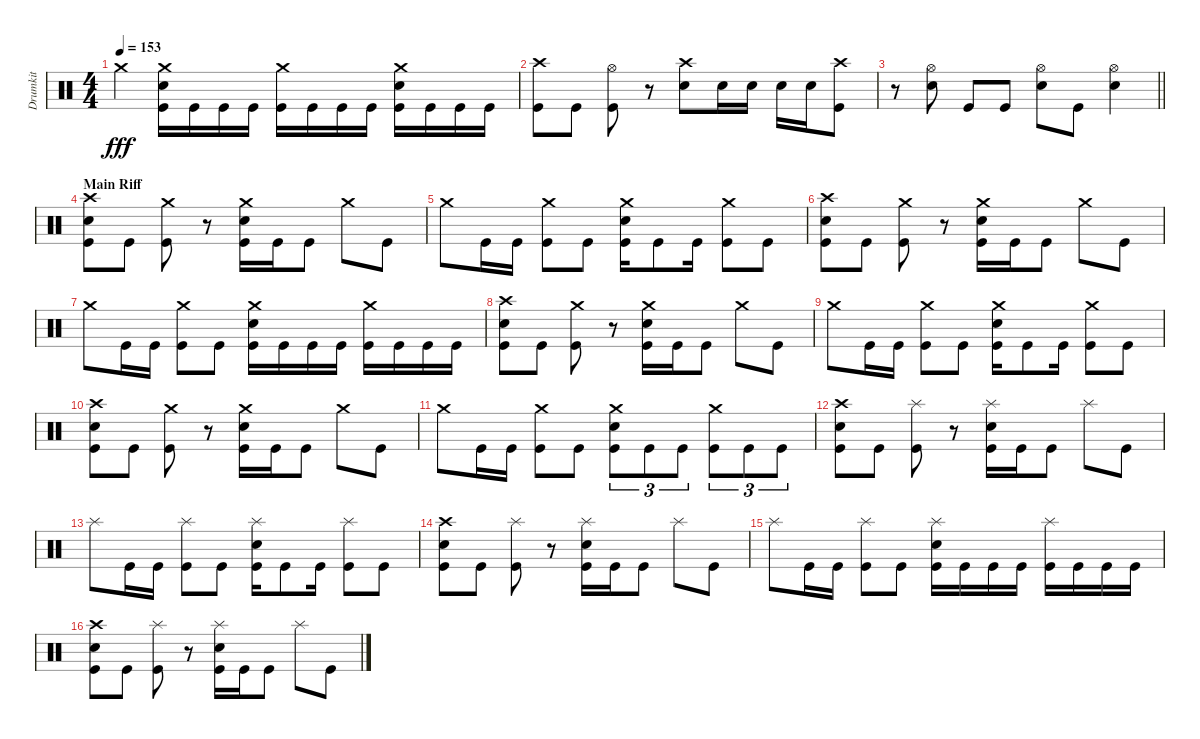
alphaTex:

\track ("Drumkit" "Drumkit") {instrument percussion}
\staff {score}
\articulation defaults
\ts (4 4)
\tempo 153
\clef neutral
\ks c "Crash medium (hit)".4{dy fff}
("Crash medium (hit)" "Snare (hit) 2" "Kick (hit)").16 "Kick (hit)".16 "Kick (hit)".16 "Kick (hit)".16 ("Crash medium (hit)" "Kick (hit)").16 "Kick (hit)".16 "Kick (hit)".16 "Kick (hit)".16 ("Crash medium (hit)" "Snare (hit) 2" "Kick (hit)").16 "Kick (hit)".16 "Kick (hit)".16 "Kick (hit)".16 |
("Crash high (hit)" "Kick (hit)").8 "Kick (hit)".8 ("Hi-Hat (open)" "Kick (hit)").8 r.8 ("Crash high (hit)" "Snare (hit) 2").8 "Snare (hit) 2".16 "Snare (hit) 2".16 "Snare (hit) 2".16 "Snare (hit) 2".16 ("Crash high (hit)" "Kick (hit)").8 |
\barLineRight lightlight
r.8 ("Hi-Hat (open)" "Snare (hit) 2").8 "Kick (hit)".8 "Kick (hit)".8 ("Hi-Hat (open)" "Snare (hit) 2").8 "Kick (hit)".8 ("Hi-Hat (open)" "Snare (hit) 2").4 |
\section ("" "Main Riff")
("Crash high (hit)" "Snare (hit) 2" "Kick (hit)").8 "Kick (hit)".8 ("Crash medium (hit)" "Kick (hit)").8 r.8 ("Snare (hit) 2" "Crash medium (hit)" "Kick (hit)").16 "Kick (hit)".16 "Kick (hit)".8 "Crash medium (hit)".8 "Kick (hit)".8 |
"Crash medium (hit)".8 "Kick (hit)".16 "Kick (hit)".16 ("Crash medium (hit)" "Kick (hit)").8 "Kick (hit)".8 ("Snare (hit) 2" "Crash medium (hit)" "Kick (hit)").16 "Kick (hit)".8 "Kick (hit)".16 ("Crash medium (hit)" "Kick (hit)").8 "Kick (hit)".8 |
("Crash high (hit)" "Snare (hit) 2" "Kick (hit)").8 "Kick (hit)".8 ("Crash medium (hit)" "Kick (hit)").8 r.8 ("Snare (hit) 2" "Crash medium (hit)" "Kick (hit)").16 "Kick (hit)".16 "Kick (hit)".8 "Crash medium (hit)".8 "Kick (hit)".8 |
"Crash medium (hit)".8 "Kick (hit)".16 "Kick (hit)".16 ("Crash medium (hit)" "Kick (hit)").8 "Kick (hit)".8 ("Snare (hit) 2" "Crash medium (hit)" "Kick (hit)").16 "Kick (hit)".16 "Kick (hit)".16 "Kick (hit)".16 ("Crash medium (hit)" "Kick (hit)").16 "Kick (hit)".16 "Kick (hit)".16 "Kick (hit)".16 |
("Crash high (hit)" "Snare (hit) 2" "Kick (hit)").8 "Kick (hit)".8 ("Crash medium (hit)" "Kick (hit)").8 r.8 ("Snare (hit) 2" "Crash medium (hit)" "Kick (hit)").16 "Kick (hit)".16 "Kick (hit)".8 "Crash medium (hit)".8 "Kick (hit)".8 |
"Crash medium (hit)".8 "Kick (hit)".16 "Kick (hit)".16 ("Crash medium (hit)" "Kick (hit)").8 "Kick (hit)".8 ("Snare (hit) 2" "Crash medium (hit)" "Kick (hit)").16 "Kick (hit)".8 "Kick (hit)".16 ("Crash medium (hit)" "Kick (hit)").8 "Kick (hit)".8 |
("Crash high (hit)" "Snare (hit) 2" "Kick (hit)").8 "Kick (hit)".8 ("Crash medium (hit)" "Kick (hit)").8 r.8 ("Snare (hit) 2" "Crash medium (hit)" "Kick (hit)").16 "Kick (hit)".16 "Kick (hit)".8 "Crash medium (hit)".8 "Kick (hit)".8 |
"Crash medium (hit)".8 "Kick (hit)".16 "Kick (hit)".16 ("Crash medium (hit)" "Kick (hit)").8 "Kick (hit)".8 ("Snare (hit) 2" "Crash medium (hit)" "Kick (hit)").8{tu (3 2)} "Kick (hit)".8{tu (3 2)} "Kick (hit)".8{tu (3 2)} ("Crash medium (hit)" "Kick (hit)").8{tu (3 2)} "Kick (hit)".8{tu (3 2)} "Kick (hit)".8{tu (3 2)} |
("Crash high (hit)" "Snare (hit) 2" "Kick (hit)").8 "Kick (hit)".8 ("Splash (hit)" "Kick (hit)").8 r.8 ("Snare (hit) 2" "Splash (hit)" "Kick (hit)").16 "Kick (hit)".16 "Kick (hit)".8 "Splash (hit)".8 "Kick (hit)".8 |
"Splash (hit)".8 "Kick (hit)".16 "Kick (hit)".16 ("Splash (hit)" "Kick (hit)").8 "Kick (hit)".8 ("Snare (hit) 2" "Splash (hit)" "Kick (hit)").16 "Kick (hit)".8 "Kick (hit)".16 ("Splash (hit)" "Kick (hit)").8 "Kick (hit)".8 |
("Crash high (hit)" "Snare (hit) 2" "Kick (hit)").8 "Kick (hit)".8 ("Splash (hit)" "Kick (hit)").8 r.8 ("Snare (hit) 2" "Splash (hit)" "Kick (hit)").16 "Kick (hit)".16 "Kick (hit)".8 "Splash (hit)".8 "Kick (hit)".8 |
"Splash (hit)".8 "Kick (hit)".16 "Kick (hit)".16 ("Splash (hit)" "Kick (hit)").8 "Kick (hit)".8 ("Snare (hit) 2" "Splash (hit)" "Kick (hit)").16 "Kick (hit)".16 "Kick (hit)".16 "Kick (hit)".16 ("Splash (hit)" "Kick (hit)").16 "Kick (hit)".16 "Kick (hit)".16 "Kick (hit)".16 |
("Crash high (hit)" "Snare (hit) 2" "Kick (hit)").8 "Kick (hit)".8 ("Splash (hit)" "Kick (hit)").8 r.8 ("Snare (hit) 2" "Splash (hit)" "Kick (hit)").16 "Kick (hit)".16 "Kick (hit)".8 "Splash (hit)".8 "Kick (hit)".8
